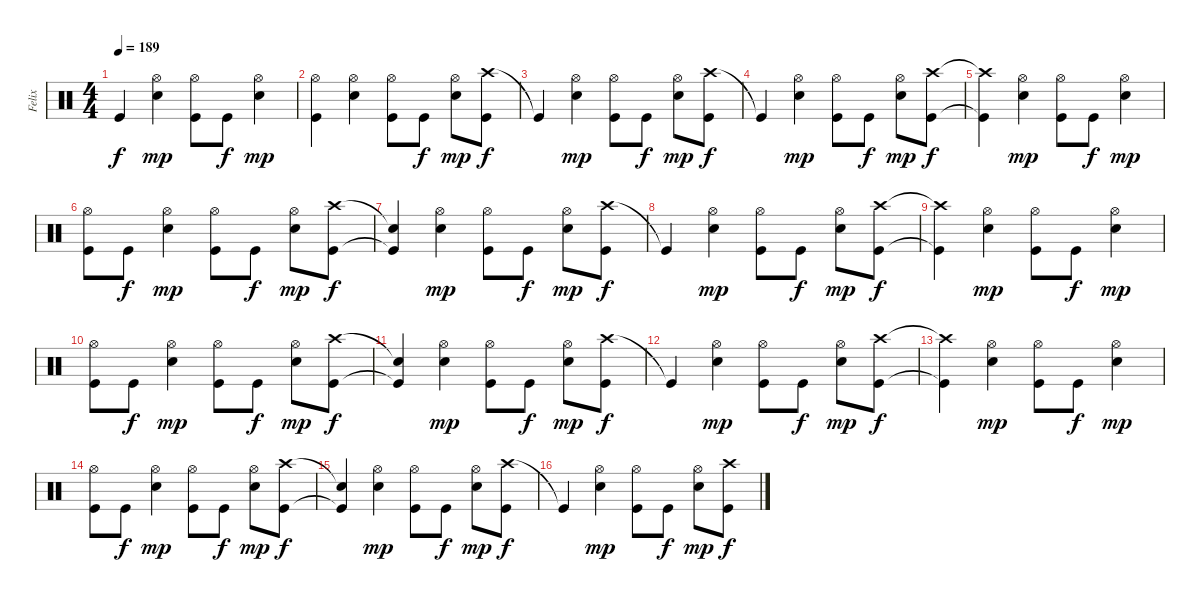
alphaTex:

\track ("Felix" "Felix") {instrument percussion}
\staff {score}
\articulation defaults
\ts (4 4)
\tempo 189
\clef neutral
\ks c "Kick (hit)"{t}.4{dy f}
("Hi-Hat (open)" "Snare (hit) 2").4{dy mp} ("Hi-Hat (open)" "Kick (hit)").8 "Kick (hit)".8{dy f} ("Hi-Hat (open)" "Snare (hit) 2").4{dy mp} |
("Hi-Hat (open)" "Kick (hit)").4 ("Hi-Hat (open)" "Snare (hit) 2").4 ("Hi-Hat (open)" "Kick (hit)").8 "Kick (hit)".8{dy f} ("Hi-Hat (open)" "Snare (hit) 2").8{dy mp} ("Crash high (hit)" "Kick (hit)").8{dy f} |
"Kick (hit)"{t}.4 ("Hi-Hat (open)" "Snare (hit) 2").4{dy mp} ("Hi-Hat (open)" "Kick (hit)").8 "Kick (hit)".8{dy f} ("Hi-Hat (open)" "Snare (hit) 2").8{dy mp} ("Crash high (hit)" "Kick (hit)").8{dy f} |
"Kick (hit)"{t}.4 ("Hi-Hat (open)" "Snare (hit) 2").4{dy mp} ("Hi-Hat (open)" "Kick (hit)").8 "Kick (hit)".8{dy f} ("Hi-Hat (open)" "Snare (hit) 2").8{dy mp} ("Crash high (hit)" "Kick (hit)").8{dy f} |
("Crash high (hit)"{t} "Kick (hit)"{t}).4 ("Hi-Hat (open)" "Snare (hit) 2").4{dy mp} ("Hi-Hat (open)" "Kick (hit)").8 "Kick (hit)".8{dy f} ("Hi-Hat (open)" "Snare (hit) 2").4{dy mp} |
("Hi-Hat (open)" "Kick (hit)").8 "Kick (hit)".8{dy f} ("Hi-Hat (open)" "Snare (hit) 2").4{dy mp} ("Hi-Hat (open)" "Kick (hit)").8 "Kick (hit)".8{dy f} ("Hi-Hat (open)" "Snare (hit) 2").8{dy mp} ("Crash high (hit)" "Kick (hit)").8{dy f} |
("Snare (hit)"{t} "Kick (hit)"{t}).4 ("Hi-Hat (open)" "Snare (hit) 2").4{dy mp} ("Hi-Hat (open)" "Kick (hit)").8 "Kick (hit)".8{dy f} ("Hi-Hat (open)" "Snare (hit) 2").8{dy mp} ("Crash high (hit)" "Kick (hit)").8{dy f} |
"Kick (hit)"{t}.4 ("Hi-Hat (open)" "Snare (hit) 2").4{dy mp} ("Hi-Hat (open)" "Kick (hit)").8 "Kick (hit)".8{dy f} ("Hi-Hat (open)" "Snare (hit) 2").8{dy mp} ("Crash high (hit)" "Kick (hit)").8{dy f} |
("Crash high (hit)"{t} "Kick (hit)"{t}).4 ("Hi-Hat (open)" "Snare (hit) 2").4{dy mp} ("Hi-Hat (open)" "Kick (hit)").8 "Kick (hit)".8{dy f} ("Hi-Hat (open)" "Snare (hit) 2").4{dy mp} |
("Hi-Hat (open)" "Kick (hit)").8 "Kick (hit)".8{dy f} ("Hi-Hat (open)" "Snare (hit) 2").4{dy mp} ("Hi-Hat (open)" "Kick (hit)").8 "Kick (hit)".8{dy f} ("Hi-Hat (open)" "Snare (hit) 2").8{dy mp} ("Crash high (hit)" "Kick (hit)").8{dy f} |
("Snare (hit)"{t} "Kick (hit)"{t}).4 ("Hi-Hat (open)" "Snare (hit) 2").4{dy mp} ("Hi-Hat (open)" "Kick (hit)").8 "Kick (hit)".8{dy f} ("Hi-Hat (open)" "Snare (hit) 2").8{dy mp} ("Crash high (hit)" "Kick (hit)").8{dy f} |
"Kick (hit)"{t}.4 ("Hi-Hat (open)" "Snare (hit) 2").4{dy mp} ("Hi-Hat (open)" "Kick (hit)").8 "Kick (hit)".8{dy f} ("Hi-Hat (open)" "Snare (hit) 2").8{dy mp} ("Crash high (hit)" "Kick (hit)").8{dy f} |
("Crash high (hit)"{t} "Kick (hit)"{t}).4 ("Hi-Hat (open)" "Snare (hit) 2").4{dy mp} ("Hi-Hat (open)" "Kick (hit)").8 "Kick (hit)".8{dy f} ("Hi-Hat (open)" "Snare (hit) 2").4{dy mp} |
("Hi-Hat (open)" "Kick (hit)").8 "Kick (hit)".8{dy f} ("Hi-Hat (open)" "Snare (hit) 2").4{dy mp} ("Hi-Hat (open)" "Kick (hit)").8 "Kick (hit)".8{dy f} ("Hi-Hat (open)" "Snare (hit) 2").8{dy mp} ("Crash high (hit)" "Kick (hit)").8{dy f} |
("Snare (hit)"{t} "Kick (hit)"{t}).4 ("Hi-Hat (open)" "Snare (hit) 2").4{dy mp} ("Hi-Hat (open)" "Kick (hit)").8 "Kick (hit)".8{dy f} ("Hi-Hat (open)" "Snare (hit) 2").8{dy mp} ("Crash high (hit)" "Kick (hit)").8{dy f} |
"Kick (hit)"{t}.4 ("Hi-Hat (open)" "Snare (hit) 2").4{dy mp} ("Hi-Hat (open)" "Kick (hit)").8 "Kick (hit)".8{dy f} ("Hi-Hat (open)" "Snare (hit) 2").8{dy mp} ("Crash high (hit)" "Kick (hit)").8{dy f}
